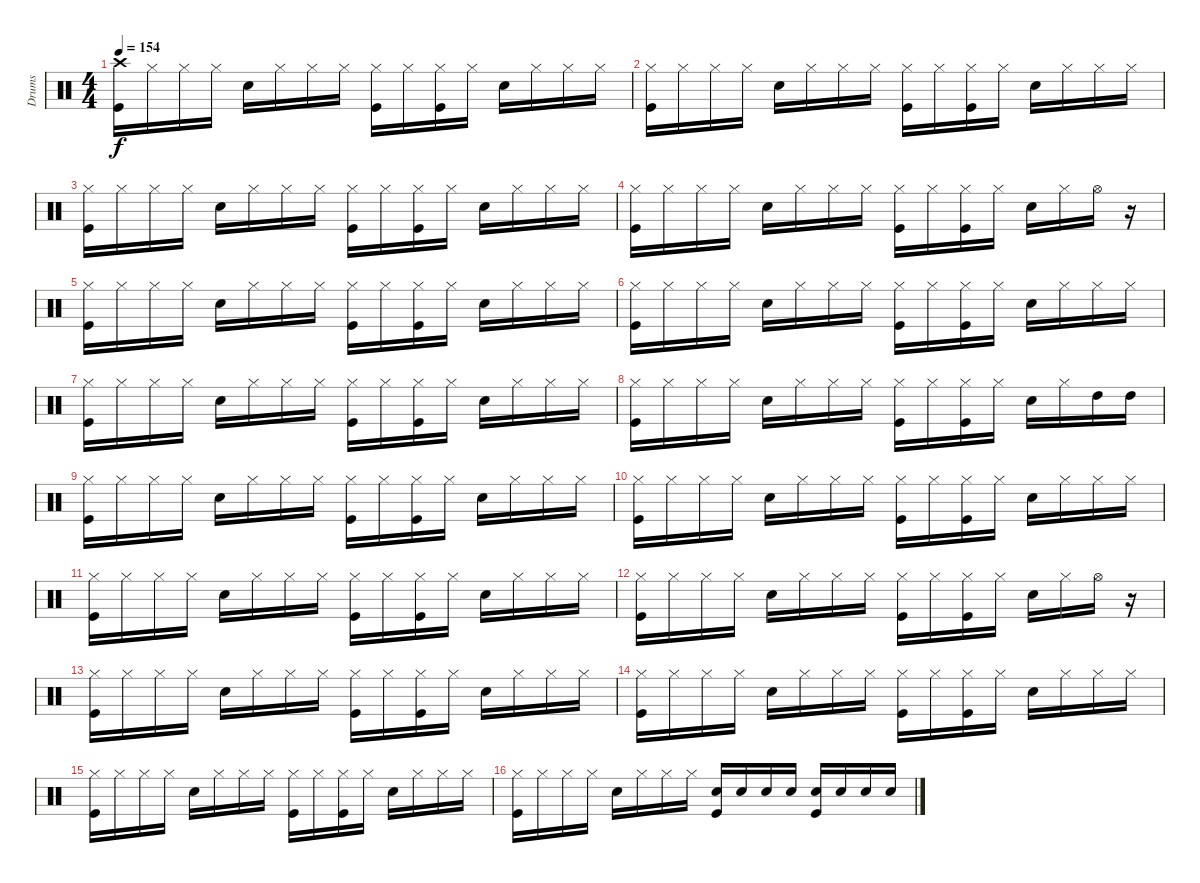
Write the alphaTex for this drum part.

\track ("Drums" "Drums") {instrument percussion}
\staff {score}
\articulation defaults
\ts (4 4)
\tempo 154
\clef neutral
\ks c
("Kick (hit)" "Crash high (hit)").16{dy f} "Hi-Hat (closed)".16 "Hi-Hat (closed)".16 "Hi-Hat (closed)".16 "Snare (hit) 2".16 "Hi-Hat (closed)".16 "Hi-Hat (closed)".16 "Hi-Hat (closed)".16 ("Hi-Hat (closed)" "Kick (hit)").16 "Hi-Hat (closed)".16 ("Kick (hit)" "Hi-Hat (closed)").16 "Hi-Hat (closed)".16 "Snare (hit) 2".16 "Hi-Hat (closed)".16 "Hi-Hat (closed)".16 "Hi-Hat (closed)".16 |
("Hi-Hat (closed)" "Kick (hit)").16 "Hi-Hat (closed)".16 "Hi-Hat (closed)".16 "Hi-Hat (closed)".16 "Snare (hit) 2".16 "Hi-Hat (closed)".16 "Hi-Hat (closed)".16 "Hi-Hat (closed)".16 ("Hi-Hat (closed)" "Kick (hit)").16 "Hi-Hat (closed)".16 ("Kick (hit)" "Hi-Hat (closed)").16 "Hi-Hat (closed)".16 "Snare (hit) 2".16 "Hi-Hat (closed)".16 "Hi-Hat (closed)".16 "Hi-Hat (closed)".16 |
("Hi-Hat (closed)" "Kick (hit)").16 "Hi-Hat (closed)".16 "Hi-Hat (closed)".16 "Hi-Hat (closed)".16 "Snare (hit) 2".16 "Hi-Hat (closed)".16 "Hi-Hat (closed)".16 "Hi-Hat (closed)".16 ("Hi-Hat (closed)" "Kick (hit)").16 "Hi-Hat (closed)".16 ("Kick (hit)" "Hi-Hat (closed)").16 "Hi-Hat (closed)".16 "Snare (hit) 2".16 "Hi-Hat (closed)".16 "Hi-Hat (closed)".16 "Hi-Hat (closed)".16 |
("Hi-Hat (closed)" "Kick (hit)").16 "Hi-Hat (closed)".16 "Hi-Hat (closed)".16 "Hi-Hat (closed)".16 "Snare (hit) 2".16 "Hi-Hat (closed)".16 "Hi-Hat (closed)".16 "Hi-Hat (closed)".16 ("Hi-Hat (closed)" "Kick (hit)").16 "Hi-Hat (closed)".16 ("Hi-Hat (closed)" "Kick (hit)").16 "Hi-Hat (closed)".16 "Snare (hit) 2".16 "Hi-Hat (closed)".16 "Hi-Hat (open)".16 r.16 |
("Hi-Hat (closed)" "Kick (hit)").16 "Hi-Hat (closed)".16 "Hi-Hat (closed)".16 "Hi-Hat (closed)".16 "Snare (hit) 2".16 "Hi-Hat (closed)".16 "Hi-Hat (closed)".16 "Hi-Hat (closed)".16 ("Hi-Hat (closed)" "Kick (hit)").16 "Hi-Hat (closed)".16 ("Kick (hit)" "Hi-Hat (closed)").16 "Hi-Hat (closed)".16 "Snare (hit) 2".16 "Hi-Hat (closed)".16 "Hi-Hat (closed)".16 "Hi-Hat (closed)".16 |
("Hi-Hat (closed)" "Kick (hit)").16 "Hi-Hat (closed)".16 "Hi-Hat (closed)".16 "Hi-Hat (closed)".16 "Snare (hit) 2".16 "Hi-Hat (closed)".16 "Hi-Hat (closed)".16 "Hi-Hat (closed)".16 ("Hi-Hat (closed)" "Kick (hit)").16 "Hi-Hat (closed)".16 ("Kick (hit)" "Hi-Hat (closed)").16 "Hi-Hat (closed)".16 "Snare (hit) 2".16 "Hi-Hat (closed)".16 "Hi-Hat (closed)".16 "Hi-Hat (closed)".16 |
("Hi-Hat (closed)" "Kick (hit)").16 "Hi-Hat (closed)".16 "Hi-Hat (closed)".16 "Hi-Hat (closed)".16 "Snare (hit) 2".16 "Hi-Hat (closed)".16 "Hi-Hat (closed)".16 "Hi-Hat (closed)".16 ("Hi-Hat (closed)" "Kick (hit)").16 "Hi-Hat (closed)".16 ("Hi-Hat (closed)" "Kick (hit)").16 "Hi-Hat (closed)".16 "Snare (hit) 2".16 "Hi-Hat (closed)".16 "Hi-Hat (closed)".16 "Hi-Hat (closed)".16 |
("Hi-Hat (closed)" "Kick (hit)").16 "Hi-Hat (closed)".16 "Hi-Hat (closed)".16 "Hi-Hat (closed)".16 "Snare (hit) 2".16 "Hi-Hat (closed)".16 "Hi-Hat (closed)".16 "Hi-Hat (closed)".16 ("Hi-Hat (closed)" "Kick (hit)").16 "Hi-Hat (closed)".16 ("Kick (hit)" "Hi-Hat (closed)").16 "Hi-Hat (closed)".16 "Snare (hit) 2".16 "Hi-Hat (closed)".16 "High Tom (hit)".16 "High Tom (hit)".16 |
("Hi-Hat (closed)" "Kick (hit)").16 "Hi-Hat (closed)".16 "Hi-Hat (closed)".16 "Hi-Hat (closed)".16 "Snare (hit) 2".16 "Hi-Hat (closed)".16 "Hi-Hat (closed)".16 "Hi-Hat (closed)".16 ("Hi-Hat (closed)" "Kick (hit)").16 "Hi-Hat (closed)".16 ("Kick (hit)" "Hi-Hat (closed)").16 "Hi-Hat (closed)".16 "Snare (hit) 2".16 "Hi-Hat (closed)".16 "Hi-Hat (closed)".16 "Hi-Hat (closed)".16 |
("Hi-Hat (closed)" "Kick (hit)").16 "Hi-Hat (closed)".16 "Hi-Hat (closed)".16 "Hi-Hat (closed)".16 "Snare (hit) 2".16 "Hi-Hat (closed)".16 "Hi-Hat (closed)".16 "Hi-Hat (closed)".16 ("Hi-Hat (closed)" "Kick (hit)").16 "Hi-Hat (closed)".16 ("Kick (hit)" "Hi-Hat (closed)").16 "Hi-Hat (closed)".16 "Snare (hit) 2".16 "Hi-Hat (closed)".16 "Hi-Hat (closed)".16 "Hi-Hat (closed)".16 |
("Hi-Hat (closed)" "Kick (hit)").16 "Hi-Hat (closed)".16 "Hi-Hat (closed)".16 "Hi-Hat (closed)".16 "Snare (hit) 2".16 "Hi-Hat (closed)".16 "Hi-Hat (closed)".16 "Hi-Hat (closed)".16 ("Hi-Hat (closed)" "Kick (hit)").16 "Hi-Hat (closed)".16 ("Kick (hit)" "Hi-Hat (closed)").16 "Hi-Hat (closed)".16 "Snare (hit) 2".16 "Hi-Hat (closed)".16 "Hi-Hat (closed)".16 "Hi-Hat (closed)".16 |
("Hi-Hat (closed)" "Kick (hit)").16 "Hi-Hat (closed)".16 "Hi-Hat (closed)".16 "Hi-Hat (closed)".16 "Snare (hit) 2".16 "Hi-Hat (closed)".16 "Hi-Hat (closed)".16 "Hi-Hat (closed)".16 ("Hi-Hat (closed)" "Kick (hit)").16 "Hi-Hat (closed)".16 ("Hi-Hat (closed)" "Kick (hit)").16 "Hi-Hat (closed)".16 "Snare (hit) 2".16 "Hi-Hat (closed)".16 "Hi-Hat (open)".16 r.16 |
("Hi-Hat (closed)" "Kick (hit)").16 "Hi-Hat (closed)".16 "Hi-Hat (closed)".16 "Hi-Hat (closed)".16 "Snare (hit) 2".16 "Hi-Hat (closed)".16 "Hi-Hat (closed)".16 "Hi-Hat (closed)".16 ("Hi-Hat (closed)" "Kick (hit)").16 "Hi-Hat (closed)".16 ("Hi-Hat (closed)" "Kick (hit)").16 "Hi-Hat (closed)".16 "Snare (hit) 2".16 "Hi-Hat (closed)".16 "Hi-Hat (closed)".16 "Hi-Hat (closed)".16 |
("Hi-Hat (closed)" "Kick (hit)").16 "Hi-Hat (closed)".16 "Hi-Hat (closed)".16 "Hi-Hat (closed)".16 "Snare (hit) 2".16 "Hi-Hat (closed)".16 "Hi-Hat (closed)".16 "Hi-Hat (closed)".16 ("Hi-Hat (closed)" "Kick (hit)").16 "Hi-Hat (closed)".16 ("Hi-Hat (closed)" "Kick (hit)").16 "Hi-Hat (closed)".16 "Snare (hit) 2".16 "Hi-Hat (closed)".16 "Hi-Hat (closed)".16 "Hi-Hat (closed)".16 |
("Hi-Hat (closed)" "Kick (hit)").16 "Hi-Hat (closed)".16 "Hi-Hat (closed)".16 "Hi-Hat (closed)".16 "Snare (hit) 2".16 "Hi-Hat (closed)".16 "Hi-Hat (closed)".16 "Hi-Hat (closed)".16 ("Hi-Hat (closed)" "Kick (hit)").16 "Hi-Hat (closed)".16 ("Kick (hit)" "Hi-Hat (closed)").16 "Hi-Hat (closed)".16 "Snare (hit) 2".16 "Hi-Hat (closed)".16 "Hi-Hat (closed)".16 "Hi-Hat (closed)".16 |
("Hi-Hat (closed)" "Kick (hit)").16 "Hi-Hat (closed)".16 "Hi-Hat (closed)".16 "Hi-Hat (closed)".16 "Snare (hit) 2".16 "Hi-Hat (closed)".16 "Hi-Hat (closed)".16 "Hi-Hat (closed)".16 ("Snare (hit) 2" "Kick (hit)").16 "Snare (hit) 2".16 "Snare (hit) 2".16 "Snare (hit) 2".16 ("Kick (hit)" "Snare (hit) 2").16 "Snare (hit) 2".16 "Snare (hit) 2".16 "Snare (hit) 2".16
